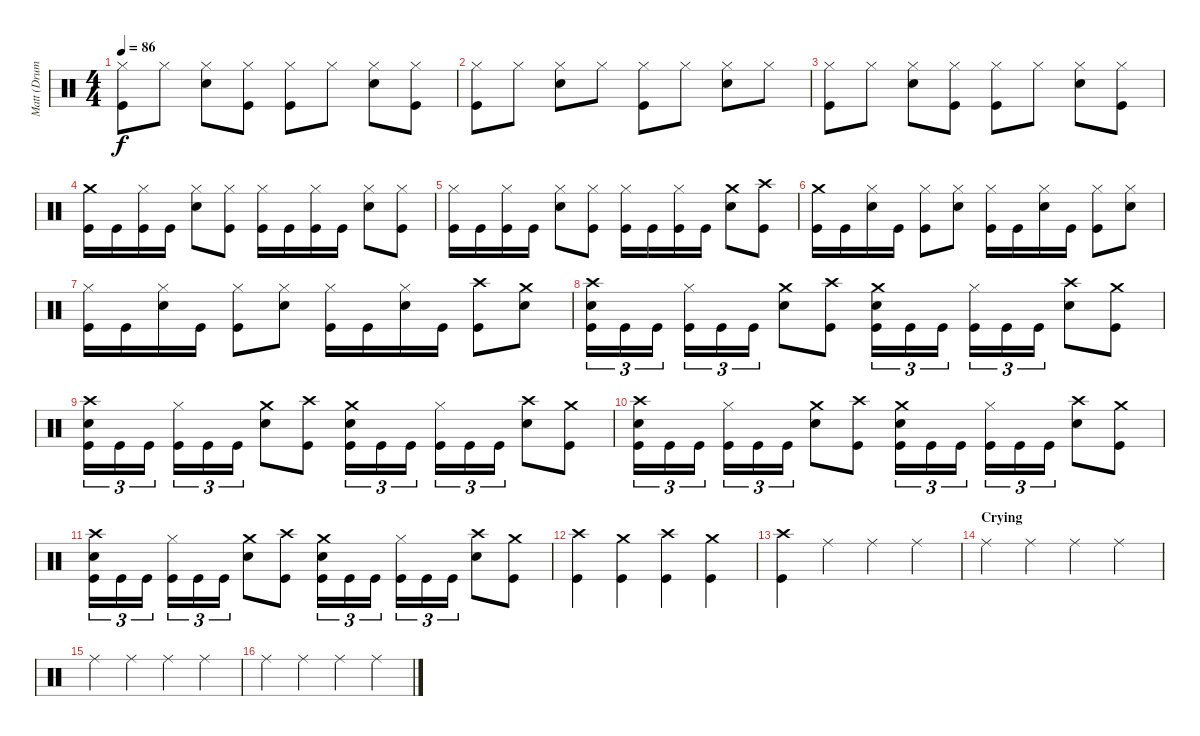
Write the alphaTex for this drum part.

\track ("Matt (Drums)" "Matt (Drum") {instrument percussion}
\staff {score}
\articulation defaults
\ts (4 4)
\tempo 86
\clef neutral
\ks c
("Hi-Hat (closed)" "Kick (hit)").8{dy f} "Hi-Hat (closed)".8 ("Hi-Hat (closed)" "Electric Snare (hit)").8 ("Hi-Hat (closed)" "Kick (hit)").8 ("Hi-Hat (closed)" "Kick (hit)").8 "Hi-Hat (closed)".8 ("Hi-Hat (closed)" "Electric Snare (hit)").8 ("Hi-Hat (closed)" "Kick (hit)").8 |
("Hi-Hat (closed)" "Kick (hit)").8 "Hi-Hat (closed)".8 ("Hi-Hat (closed)" "Electric Snare (hit)").8 "Hi-Hat (closed)".8 ("Hi-Hat (closed)" "Kick (hit)").8 "Hi-Hat (closed)".8 ("Hi-Hat (closed)" "Electric Snare (hit)").8 "Hi-Hat (closed)".8 |
("Hi-Hat (closed)" "Kick (hit)").8 "Hi-Hat (closed)".8 ("Hi-Hat (closed)" "Electric Snare (hit)").8 ("Hi-Hat (closed)" "Kick (hit)").8 ("Hi-Hat (closed)" "Kick (hit)").8 "Hi-Hat (closed)".8 ("Hi-Hat (closed)" "Electric Snare (hit)").8 ("Hi-Hat (closed)" "Kick (hit)").8 |
("Crash medium (hit)" "Kick (hit)").16 "Kick (hit)".16 ("Hi-Hat (closed)" "Kick (hit)").16 "Kick (hit)".16 ("Hi-Hat (closed)" "Electric Snare (hit)").8 ("Hi-Hat (closed)" "Kick (hit)").8 ("Hi-Hat (closed)" "Kick (hit)").16 "Kick (hit)".16 ("Hi-Hat (closed)" "Kick (hit)").16 "Kick (hit)".16 ("Hi-Hat (closed)" "Electric Snare (hit)").8 ("Hi-Hat (closed)" "Kick (hit)").8 |
("Hi-Hat (closed)" "Kick (hit)").16 "Kick (hit)".16 ("Hi-Hat (closed)" "Kick (hit)").16 "Kick (hit)".16 ("Hi-Hat (closed)" "Electric Snare (hit)").8 ("Hi-Hat (closed)" "Kick (hit)").8 ("Hi-Hat (closed)" "Kick (hit)").16 "Kick (hit)".16 ("Hi-Hat (closed)" "Kick (hit)").16 "Kick (hit)".16 ("Crash medium (hit)" "Electric Snare (hit)").8 ("Crash high (hit)" "Kick (hit)").8 |
("Crash medium (hit)" "Kick (hit)").16 "Kick (hit)".16 ("Hi-Hat (closed)" "Electric Snare (hit)").16 "Kick (hit)".16 ("Hi-Hat (closed)" "Kick (hit)").8 ("Hi-Hat (closed)" "Electric Snare (hit)").8 ("Hi-Hat (closed)" "Kick (hit)").16 "Kick (hit)".16 ("Hi-Hat (closed)" "Electric Snare (hit)").16 "Kick (hit)".16 ("Hi-Hat (closed)" "Kick (hit)").8 ("Hi-Hat (closed)" "Electric Snare (hit)").8 |
("Hi-Hat (closed)" "Kick (hit)").16 "Kick (hit)".16 ("Hi-Hat (closed)" "Electric Snare (hit)").16 "Kick (hit)".16 ("Hi-Hat (closed)" "Kick (hit)").8 ("Hi-Hat (closed)" "Electric Snare (hit)").8 ("Hi-Hat (closed)" "Kick (hit)").16 "Kick (hit)".16 ("Hi-Hat (closed)" "Electric Snare (hit)").16 "Kick (hit)".16 ("Crash high (hit)" "Kick (hit)").8 ("Crash medium (hit)" "Electric Snare (hit)").8 |
("Crash high (hit)" "Electric Snare (hit)" "Kick (hit)").16{tu (3 2)} "Kick (hit)".16{tu (3 2)} "Kick (hit)".16{tu (3 2)} ("Hi-Hat (closed)" "Kick (hit)").16{tu (3 2)} "Kick (hit)".16{tu (3 2)} "Kick (hit)".16{tu (3 2)} ("Crash medium (hit)" "Electric Snare (hit)").8 ("Crash high (hit)" "Kick (hit)").8 ("Crash medium (hit)" "Electric Snare (hit)" "Kick (hit)").16{tu (3 2)} "Kick (hit)".16{tu (3 2)} "Kick (hit)".16{tu (3 2)} ("Hi-Hat (closed)" "Kick (hit)").16{tu (3 2)} "Kick (hit)".16{tu (3 2)} "Kick (hit)".16{tu (3 2)} ("Crash high (hit)" "Electric Snare (hit)").8 ("Crash medium (hit)" "Kick (hit)").8 |
("Crash high (hit)" "Electric Snare (hit)" "Kick (hit)").16{tu (3 2)} "Kick (hit)".16{tu (3 2)} "Kick (hit)".16{tu (3 2)} ("Hi-Hat (closed)" "Kick (hit)").16{tu (3 2)} "Kick (hit)".16{tu (3 2)} "Kick (hit)".16{tu (3 2)} ("Crash medium (hit)" "Electric Snare (hit)").8 ("Crash high (hit)" "Kick (hit)").8 ("Crash medium (hit)" "Electric Snare (hit)" "Kick (hit)").16{tu (3 2)} "Kick (hit)".16{tu (3 2)} "Kick (hit)".16{tu (3 2)} ("Hi-Hat (closed)" "Kick (hit)").16{tu (3 2)} "Kick (hit)".16{tu (3 2)} "Kick (hit)".16{tu (3 2)} ("Crash high (hit)" "Electric Snare (hit)").8 ("Crash medium (hit)" "Kick (hit)").8 |
("Crash high (hit)" "Electric Snare (hit)" "Kick (hit)").16{tu (3 2)} "Kick (hit)".16{tu (3 2)} "Kick (hit)".16{tu (3 2)} ("Hi-Hat (closed)" "Kick (hit)").16{tu (3 2)} "Kick (hit)".16{tu (3 2)} "Kick (hit)".16{tu (3 2)} ("Crash medium (hit)" "Electric Snare (hit)").8 ("Crash high (hit)" "Kick (hit)").8 ("Crash medium (hit)" "Electric Snare (hit)" "Kick (hit)").16{tu (3 2)} "Kick (hit)".16{tu (3 2)} "Kick (hit)".16{tu (3 2)} ("Hi-Hat (closed)" "Kick (hit)").16{tu (3 2)} "Kick (hit)".16{tu (3 2)} "Kick (hit)".16{tu (3 2)} ("Crash high (hit)" "Electric Snare (hit)").8 ("Crash medium (hit)" "Kick (hit)").8 |
("Crash high (hit)" "Electric Snare (hit)" "Kick (hit)").16{tu (3 2)} "Kick (hit)".16{tu (3 2)} "Kick (hit)".16{tu (3 2)} ("Hi-Hat (closed)" "Kick (hit)").16{tu (3 2)} "Kick (hit)".16{tu (3 2)} "Kick (hit)".16{tu (3 2)} ("Crash medium (hit)" "Electric Snare (hit)").8 ("Crash high (hit)" "Kick (hit)").8 ("Crash medium (hit)" "Electric Snare (hit)" "Kick (hit)").16{tu (3 2)} "Kick (hit)".16{tu (3 2)} "Kick (hit)".16{tu (3 2)} ("Hi-Hat (closed)" "Kick (hit)").16{tu (3 2)} "Kick (hit)".16{tu (3 2)} "Kick (hit)".16{tu (3 2)} ("Crash high (hit)" "Electric Snare (hit)").8 ("Crash medium (hit)" "Kick (hit)").8 |
("Crash high (hit)" "Kick (hit)").4 ("Crash medium (hit)" "Kick (hit)").4 ("Crash high (hit)" "Kick (hit)").4 ("Crash medium (hit)" "Kick (hit)").4 |
("Crash high (hit)" "Kick (hit)").4 "Ride (middle)".4 "Ride (middle)".4 "Ride (middle)".4 |
\section ("" "Crying")
"Ride (middle)".4 "Ride (middle)".4 "Ride (middle)".4 "Ride (middle)".4 |
"Ride (middle)".4 "Ride (middle)".4 "Ride (middle)".4 "Ride (middle)".4 |
"Ride (middle)".4 "Ride (middle)".4 "Ride (middle)".4 "Ride (middle)".4
